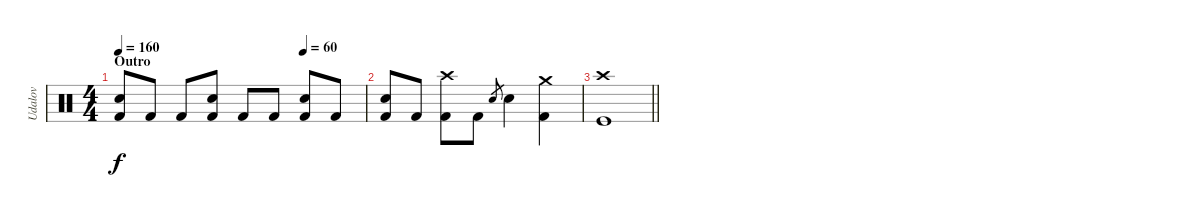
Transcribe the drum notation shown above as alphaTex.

\track ("Udalov" "Udalov") {instrument percussion}
\staff {score}
\articulation defaults
\ts (4 4)
\section ("" "Outro")
\tempo 160
\tempo (60 0.75)
\clef neutral
\ks c
("Kick (hit) 2" "Snare (hit) 2").8{dy f} "Kick (hit) 2".8 "Kick (hit) 2".8 ("Kick (hit) 2" "Snare (hit) 2").8 "Kick (hit) 2".8 "Kick (hit) 2".8 ("Kick (hit) 2" "Snare (hit) 2").8 "Kick (hit) 2".8 |
("Kick (hit) 2" "Snare (hit) 2").8 "Kick (hit) 2".8 ("Kick (hit) 2" "Crash high (hit)").8 "Kick (hit) 2".8 "Snare (hit) 2".8{gr} "Snare (hit) 2".4 ("Kick (hit) 2" "Crash medium (hit)").4 |
\barLineRight lightlight
("Kick (hit)" "Crash high (hit)").1
